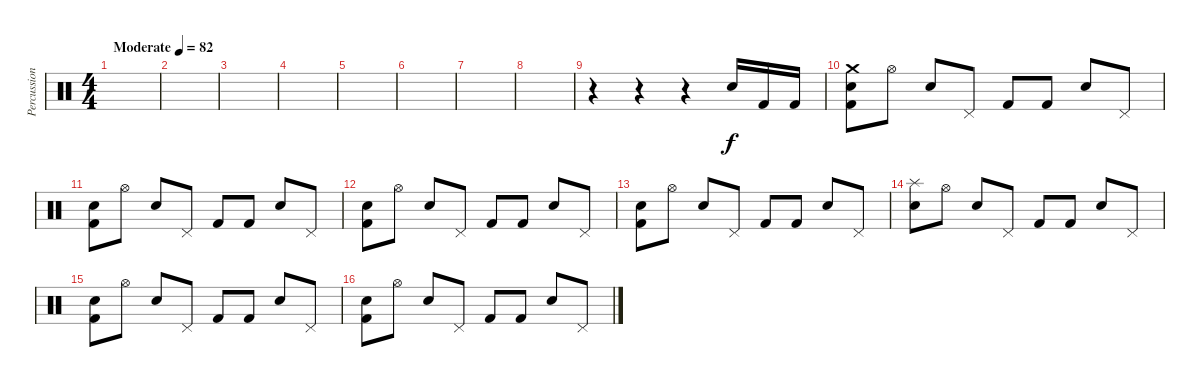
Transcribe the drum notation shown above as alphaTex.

\track ("Percussion" "Percussion") {instrument percussion}
\staff {score}
\articulation defaults
\ts (4 4)
\tempo (82 "Moderate")
\clef neutral
\ks c
|
|
|
|
|
|
|
|
r.4 r.4 r.4 "Snare (hit) 2".16 "Kick (hit) 2".16 "Kick (hit) 2".16 |
("Kick (hit) 2" "Crash medium (hit)" "Snare (hit)").8 "Hi-Hat (open)".8 "Snare (hit) 2".8 "Pedal Hi-Hat (hit)".8 "Kick (hit) 2".8 "Kick (hit) 2".8 "Snare (hit) 2".8 "Pedal Hi-Hat (hit)".8 |
("Snare (hit)" "Kick (hit) 2").8 "Hi-Hat (open)".8 "Snare (hit) 2".8 "Pedal Hi-Hat (hit)".8 "Kick (hit) 2".8 "Kick (hit) 2".8 "Snare (hit) 2".8 "Pedal Hi-Hat (hit)".8 |
("Snare (hit)" "Kick (hit) 2").8 "Hi-Hat (open)".8 "Snare (hit) 2".8 "Pedal Hi-Hat (hit)".8 "Kick (hit) 2".8 "Kick (hit) 2".8 "Snare (hit) 2".8 "Pedal Hi-Hat (hit)".8 |
("Snare (hit)" "Kick (hit) 2").8 "Hi-Hat (open)".8 "Snare (hit) 2".8 "Pedal Hi-Hat (hit)".8 "Kick (hit) 2".8 "Kick (hit) 2".8 "Snare (hit) 2".8 "Pedal Hi-Hat (hit)".8 |
("Snare (hit)" "Splash (hit)").8 "Hi-Hat (open)".8 "Snare (hit) 2".8 "Pedal Hi-Hat (hit)".8 "Kick (hit) 2".8 "Kick (hit) 2".8 "Snare (hit) 2".8 "Pedal Hi-Hat (hit)".8 |
("Snare (hit)" "Kick (hit) 2").8 "Hi-Hat (open)".8 "Snare (hit) 2".8 "Pedal Hi-Hat (hit)".8 "Kick (hit) 2".8 "Kick (hit) 2".8 "Snare (hit) 2".8 "Pedal Hi-Hat (hit)".8 |
("Snare (hit)" "Kick (hit) 2").8 "Hi-Hat (open)".8 "Snare (hit) 2".8 "Pedal Hi-Hat (hit)".8 "Kick (hit) 2".8 "Kick (hit) 2".8 "Snare (hit) 2".8 "Pedal Hi-Hat (hit)".8
